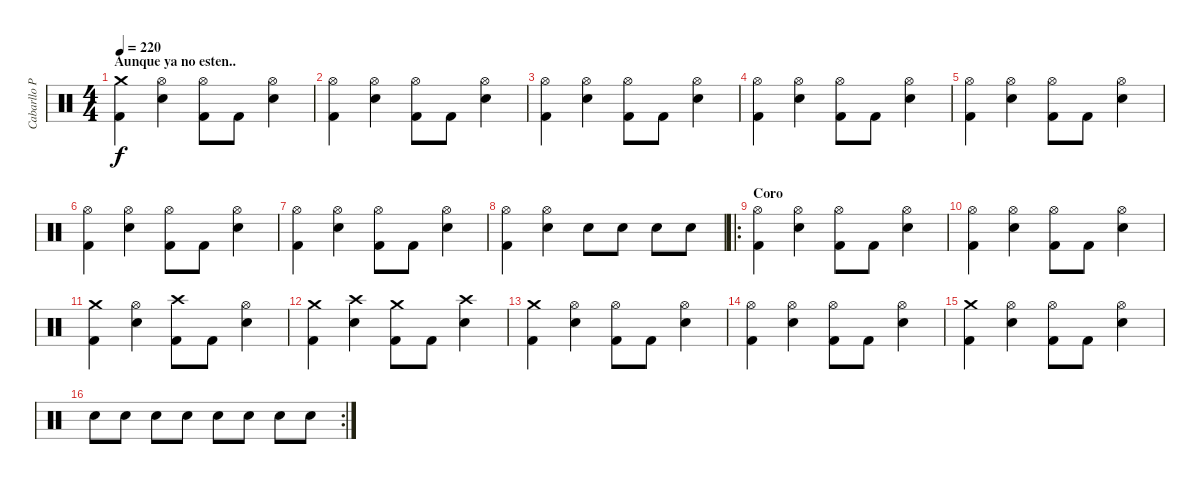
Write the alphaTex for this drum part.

\track ("Cabarllo Pepe" "Cabarllo P") {instrument percussion}
\staff {score}
\articulation defaults
\ts (4 4)
\section ("" "Aunque ya no esten..")
\tempo 220
\clef neutral
\ks c
("Crash medium (hit)" "Kick (hit) 2").4{dy f} ("Hi-Hat (open)" "Electric Snare (hit)").4 ("Hi-Hat (open)" "Kick (hit) 2").8 "Kick (hit) 2".8 ("Hi-Hat (open)" "Electric Snare (hit)").4 |
("Hi-Hat (open)" "Kick (hit) 2").4 ("Hi-Hat (open)" "Electric Snare (hit)").4 ("Hi-Hat (open)" "Kick (hit) 2").8 "Kick (hit) 2".8 ("Hi-Hat (open)" "Electric Snare (hit)").4 |
("Hi-Hat (open)" "Kick (hit) 2").4 ("Hi-Hat (open)" "Electric Snare (hit)").4 ("Hi-Hat (open)" "Kick (hit) 2").8 "Kick (hit) 2".8 ("Hi-Hat (open)" "Electric Snare (hit)").4 |
("Hi-Hat (open)" "Kick (hit) 2").4 ("Hi-Hat (open)" "Electric Snare (hit)").4 ("Hi-Hat (open)" "Kick (hit) 2").8 "Kick (hit) 2".8 ("Hi-Hat (open)" "Electric Snare (hit)").4 |
("Hi-Hat (open)" "Kick (hit) 2").4 ("Hi-Hat (open)" "Electric Snare (hit)").4 ("Hi-Hat (open)" "Kick (hit) 2").8 "Kick (hit) 2".8 ("Hi-Hat (open)" "Electric Snare (hit)").4 |
("Hi-Hat (open)" "Kick (hit) 2").4 ("Hi-Hat (open)" "Electric Snare (hit)").4 ("Hi-Hat (open)" "Kick (hit) 2").8 "Kick (hit) 2".8 ("Hi-Hat (open)" "Electric Snare (hit)").4 |
("Hi-Hat (open)" "Kick (hit) 2").4 ("Hi-Hat (open)" "Electric Snare (hit)").4 ("Hi-Hat (open)" "Kick (hit) 2").8 "Kick (hit) 2".8 ("Hi-Hat (open)" "Electric Snare (hit)").4 |
("Hi-Hat (open)" "Kick (hit) 2").4 ("Hi-Hat (open)" "Electric Snare (hit)").4 "Electric Snare (hit)".8 "Electric Snare (hit)".8 "Electric Snare (hit)".8 "Electric Snare (hit)".8 |
\ro
\section ("" "Coro")
("Hi-Hat (open)" "Kick (hit) 2").4 ("Hi-Hat (open)" "Electric Snare (hit)").4 ("Hi-Hat (open)" "Kick (hit) 2").8 "Kick (hit) 2".8 ("Hi-Hat (open)" "Electric Snare (hit)").4 |
("Hi-Hat (open)" "Kick (hit) 2").4 ("Hi-Hat (open)" "Electric Snare (hit)").4 ("Hi-Hat (open)" "Kick (hit) 2").8 "Kick (hit) 2".8 ("Hi-Hat (open)" "Electric Snare (hit)").4 |
("Crash medium (hit)" "Kick (hit) 2").4 ("Hi-Hat (open)" "Electric Snare (hit)").4 ("Crash high (hit)" "Kick (hit) 2").8 "Kick (hit) 2".8 ("Hi-Hat (open)" "Electric Snare (hit)").4 |
("Crash medium (hit)" "Kick (hit) 2").4 ("Crash high (hit)" "Electric Snare (hit)").4 ("Crash medium (hit)" "Kick (hit) 2").8 "Kick (hit) 2".8 ("Crash high (hit)" "Electric Snare (hit)").4 |
("Crash medium (hit)" "Kick (hit) 2").4 ("Hi-Hat (open)" "Electric Snare (hit)").4 ("Hi-Hat (open)" "Kick (hit) 2").8 "Kick (hit) 2".8 ("Hi-Hat (open)" "Electric Snare (hit)").4 |
("Hi-Hat (open)" "Kick (hit) 2").4 ("Hi-Hat (open)" "Electric Snare (hit)").4 ("Hi-Hat (open)" "Kick (hit) 2").8 "Kick (hit) 2".8 ("Hi-Hat (open)" "Electric Snare (hit)").4 |
("Crash medium (hit)" "Kick (hit) 2").4 ("Hi-Hat (open)" "Electric Snare (hit)").4 ("Hi-Hat (open)" "Kick (hit) 2").8 "Kick (hit) 2".8 ("Hi-Hat (open)" "Electric Snare (hit)").4 |
\rc 2 "Electric Snare (hit)".8 "Electric Snare (hit)".8 "Electric Snare (hit)".8 "Electric Snare (hit)".8 "Electric Snare (hit)".8 "Electric Snare (hit)".8 "Electric Snare (hit)".8 "Electric Snare (hit)".8
